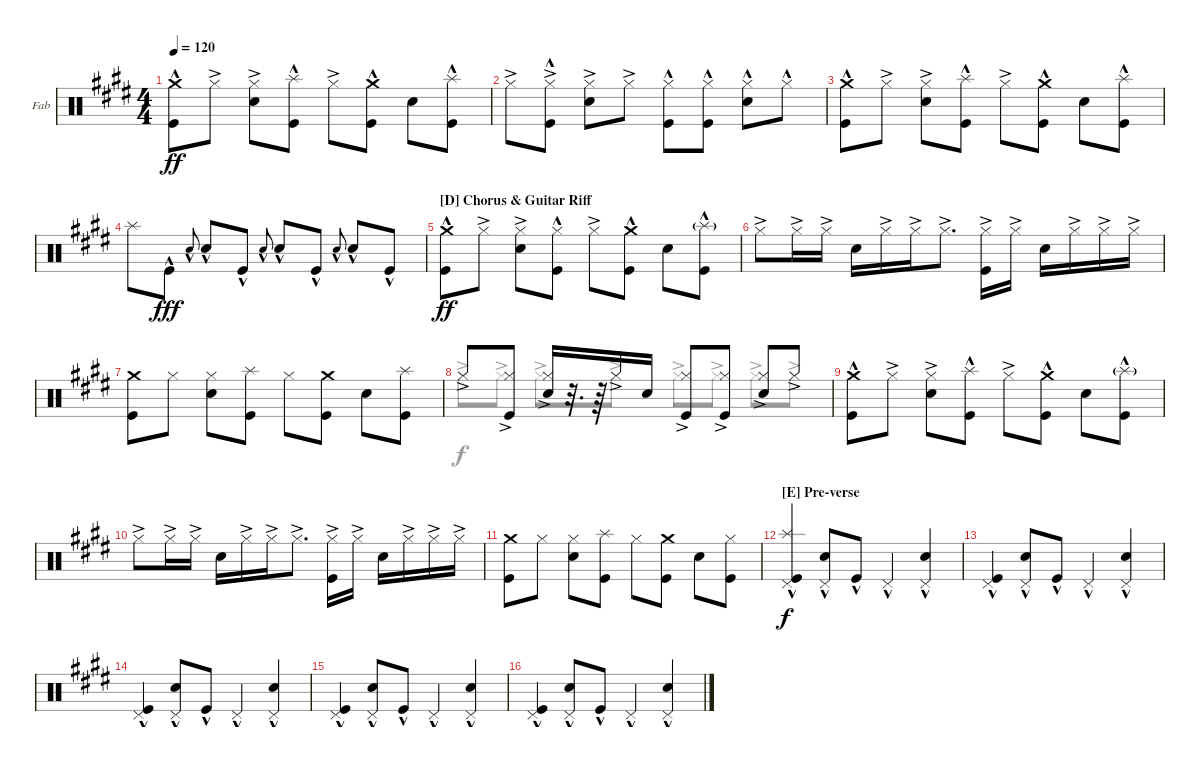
\bracketExtendMode groupsimilarinstruments
\firstSystemTrackNameOrientation horizontal
\otherSystemsTrackNameOrientation horizontal
\track ("Drums" "Fab") {instrument percussion}
\staff {score}
\articulation defaults
\voice
\ts (4 4)
\tempo 120
\clef neutral
\scale
0.535312
\ks e
("Crash medium (hit)" "Kick (hit)"{hac}).8{dy ff} "Hi-Hat (closed)"{ac}.8 ("Snare (hit) 2" "Hi-Hat (closed)"{ac}).8 ("Kick (hit)"{hac} "Splash (hit)").8 "Hi-Hat (closed)"{ac}.8 ("Crash medium (hit)" "Kick (hit)"{hac}).8 "Snare (hit) 2".8 ("Kick (hit)"{hac} "Splash (hit)").8 |
\scale
0.464571 "Hi-Hat (closed)"{ac}.8 ("Hi-Hat (closed)"{ac} "Kick (hit)"{hac}).8 ("Hi-Hat (closed)"{ac} "Snare (hit) 2").8 "Hi-Hat (closed)"{ac}.8 ("Hi-Hat (closed)"{hac} "Kick (hit)"{hac}).8 ("Hi-Hat (closed)"{hac} "Kick (hit)"{hac}).8 ("Hi-Hat (closed)"{hac} "Snare (hit) 2").8 "Hi-Hat (closed)"{hac}.8 |
("Crash medium (hit)" "Kick (hit)"{hac}).8 "Hi-Hat (closed)"{ac}.8 ("Snare (hit) 2" "Hi-Hat (closed)"{ac}).8 ("Kick (hit)"{hac} "Splash (hit)").8 "Hi-Hat (closed)"{ac}.8 ("Crash medium (hit)" "Kick (hit)"{hac}).8 "Snare (hit) 2".8 ("Kick (hit)"{hac} "Splash (hit)").8 |
"Splash (hit)".8 "Kick (hit)"{hac}.8{dy fff} "Snare (hit) 2"{hac}.8{gr onbeat} "Snare (hit) 2"{hac}.8 "Kick (hit)"{hac}.8 "Snare (hit) 2"{hac}.8{gr onbeat} "Snare (hit) 2"{hac}.8 "Kick (hit)"{hac}.8 "Snare (hit) 2"{hac}.8{gr onbeat} "Snare (hit) 2"{hac}.8 "Kick (hit)"{hac}.8 |
\section ("D" "Chorus & Guitar Riff")
\scale
0.533866 ("Kick (hit)"{hac} "Crash medium (hit)").8{dy ff} "Hi-Hat (closed)"{ac}.8 ("Hi-Hat (closed)"{ac} "Snare (hit) 2").8 ("Kick (hit)"{hac} "Hi-Hat (closed)").8 "Hi-Hat (closed)"{ac}.8 ("Kick (hit)"{hac} "Crash medium (hit)").8 "Snare (hit) 2".8 ("Kick (hit)"{hac} "Splash (hit)"{g}).8 |
\scale
0.466251 "Hi-Hat (closed)"{ac}.8 "Hi-Hat (closed)"{ac}.16 "Hi-Hat (closed)"{ac}.16 "Snare (hit) 2".16 "Hi-Hat (closed)"{ac}.16 "Hi-Hat (closed)"{ac}.16 "Hi-Hat (closed)"{ac}.8{d} ("Hi-Hat (closed)"{ac} "Kick (hit)").16 "Hi-Hat (closed)"{ac}.16 "Snare (hit) 2".16 "Hi-Hat (closed)"{ac}.16 "Hi-Hat (closed)"{ac}.16 "Hi-Hat (closed)"{ac}.16 |
\scale
0.536042 ("Crash medium (hit)" "Kick (hit)").8 "Hi-Hat (closed)".8 ("Hi-Hat (closed)" "Snare (hit) 2").8 ("Kick (hit)" "Splash (hit)").8 "Hi-Hat (closed)".8 ("Kick (hit)" "Crash medium (hit)").8 "Snare (hit) 2".8 ("Kick (hit)" "Splash (hit)").8 |
\scale
0.464598 "Hi-Hat (closed)"{ac}.8 ("Kick (hit)" "Hi-Hat (closed)"{ac}).8 ("Snare (hit) 2" "Hi-Hat (closed)"{ac}).16 r.32{d} r.64 "Hi-Hat (closed)"{ac}.16 "Snare (hit) 2".16 ("Kick (hit)" "Hi-Hat (closed)"{ac}).8 ("Kick (hit)" "Hi-Hat (closed)"{ac}).8 ("Snare (hit) 2" "Hi-Hat (closed)"{ac}).8 "Hi-Hat (closed)"{ac}.8 |
\scale
0.538015 ("Kick (hit)"{hac} "Crash medium (hit)").8 "Hi-Hat (closed)"{ac}.8 ("Hi-Hat (closed)"{ac} "Snare (hit) 2").8 ("Kick (hit)"{hac} "Splash (hit)").8 "Hi-Hat (closed)"{ac}.8 ("Kick (hit)"{hac} "Crash medium (hit)").8 "Snare (hit) 2".8 ("Kick (hit)"{hac} "Splash (hit)"{g}).8 |
\scale
0.462112 "Hi-Hat (closed)"{ac}.8 "Hi-Hat (closed)"{ac}.16 "Hi-Hat (closed)"{ac}.16 "Snare (hit) 2".16 "Hi-Hat (closed)"{ac}.16 "Hi-Hat (closed)"{ac}.16 "Hi-Hat (closed)"{ac}.8{d} ("Hi-Hat (closed)"{ac} "Kick (hit)").16 "Hi-Hat (closed)"{ac}.16 "Snare (hit) 2".16 "Hi-Hat (closed)"{ac}.16 "Hi-Hat (closed)"{ac}.16 "Hi-Hat (closed)"{ac}.16 |
\scale
0.541014 ("Crash medium (hit)" "Kick (hit)").8 "Hi-Hat (closed)".8 ("Hi-Hat (closed)" "Snare (hit) 2").8 ("Kick (hit)" "Splash (hit)").8 "Hi-Hat (closed)".8 ("Kick (hit)" "Crash medium (hit)").8 "Snare (hit) 2".8 ("Kick (hit)" "Hi-Hat (closed)").8 |
\section ("E" "Pre-verse")
\scale
0.458619 ("Kick (hit)"{hac} "Pedal Hi-Hat (hit)"{hac} "Splash (hit)").4{dy f} ("Snare (hit) 2" "Pedal Hi-Hat (hit)"{hac}).8 "Kick (hit)"{hac}.8 "Pedal Hi-Hat (hit)"{hac}.4 ("Snare (hit) 2" "Pedal Hi-Hat (hit)"{hac}).4 |
\scale
0.5391 ("Pedal Hi-Hat (hit)"{hac} "Kick (hit)"{hac}).4 ("Snare (hit) 2" "Pedal Hi-Hat (hit)"{hac}).8 "Kick (hit)"{hac}.8 "Pedal Hi-Hat (hit)"{hac}.4 ("Snare (hit) 2" "Pedal Hi-Hat (hit)"{hac}).4 |
\scale
0.460817 ("Pedal Hi-Hat (hit)"{hac} "Kick (hit)"{hac}).4 ("Snare (hit) 2" "Pedal Hi-Hat (hit)"{hac}).8 "Kick (hit)"{hac}.8 "Pedal Hi-Hat (hit)"{hac}.4 ("Snare (hit) 2" "Pedal Hi-Hat (hit)"{hac}).4 |
\scale
0.541864 ("Pedal Hi-Hat (hit)"{hac} "Kick (hit)"{hac}).4 ("Snare (hit) 2" "Pedal Hi-Hat (hit)"{hac}).8 "Kick (hit)"{hac}.8 "Pedal Hi-Hat (hit)"{hac}.4 ("Snare (hit) 2" "Pedal Hi-Hat (hit)"{hac}).4 |
\scale
0.458057 ("Pedal Hi-Hat (hit)"{hac} "Kick (hit)"{hac}).4 ("Snare (hit) 2" "Pedal Hi-Hat (hit)"{hac}).8 "Kick (hit)"{hac}.8 "Pedal Hi-Hat (hit)"{hac}.4 ("Snare (hit) 2" "Pedal Hi-Hat (hit)"{hac}).4
\voice
\clef neutral
\ottava regular
\simile none
\scale
0.535312
\ks e
|
\scale
0.464571 |
|
|
\scale
0.533866 |
\scale
0.466251 |
\scale
0.536042 |
\scale
0.464598 "Hi-Hat (closed)"{ac}.8 "Hi-Hat (closed)"{ac}.8 "Hi-Hat (closed)"{ac}.8 "Hi-Hat (closed)"{ac}.8 "Hi-Hat (closed)"{ac}.8 "Hi-Hat (closed)"{ac}.8 "Hi-Hat (closed)"{ac}.8 "Hi-Hat (closed)"{ac}.8 |
\scale
0.538015 |
\scale
0.462112 |
\scale
0.541014 |
\scale
0.458619 |
\scale
0.5391 |
\scale
0.460817 |
\scale
0.541864 |
\scale
0.458057
